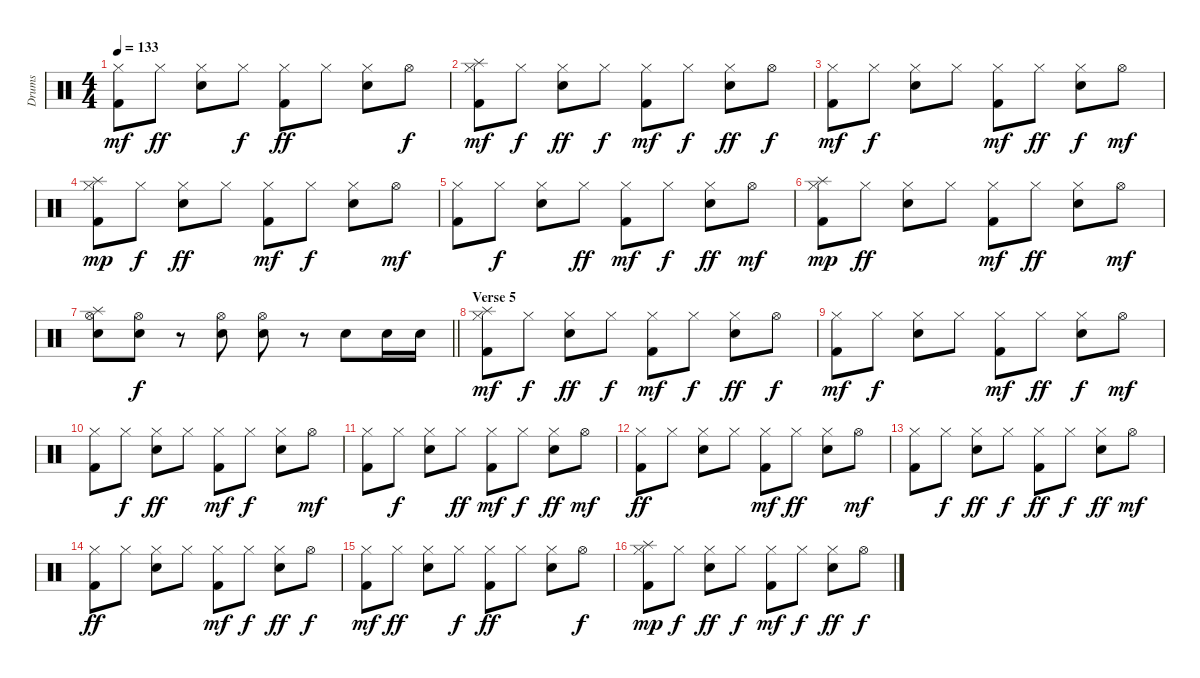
\track ("Drums   " "Drums   ") {instrument percussion}
\staff {score}
\articulation defaults
\ts (4 4)
\tempo 133
\clef neutral
\ks c
("Kick (hit) 2" "Hi-Hat (closed)").8{dy mf} "Hi-Hat (closed)".8{dy ff} ("Electric Snare (hit)" "Hi-Hat (closed)").8 "Hi-Hat (closed)".8{dy f} ("Kick (hit) 2" "Hi-Hat (closed)").8{dy ff} "Hi-Hat (closed)".8 ("Electric Snare (hit)" "Hi-Hat (closed)").8 "Hi-Hat (open)".8{dy f} |
("Kick (hit) 2" "Hi-Hat (closed)" "Splash (hit)").8{dy mf} "Hi-Hat (closed)".8{dy f} ("Electric Snare (hit)" "Hi-Hat (closed)").8{dy ff} "Hi-Hat (closed)".8{dy f} ("Kick (hit) 2" "Hi-Hat (closed)").8{dy mf} "Hi-Hat (closed)".8{dy f} ("Electric Snare (hit)" "Hi-Hat (closed)").8{dy ff} "Hi-Hat (open)".8{dy f} |
("Kick (hit) 2" "Hi-Hat (closed)").8{dy mf} "Hi-Hat (closed)".8{dy f} ("Electric Snare (hit)" "Hi-Hat (closed)").8 "Hi-Hat (closed)".8 ("Kick (hit) 2" "Hi-Hat (closed)").8{dy mf} "Hi-Hat (closed)".8{dy ff} ("Electric Snare (hit)" "Hi-Hat (closed)").8{dy f} "Hi-Hat (open)".8{dy mf} |
("Kick (hit) 2" "Hi-Hat (closed)" "Splash (hit)").8{dy mp} "Hi-Hat (closed)".8{dy f} ("Electric Snare (hit)" "Hi-Hat (closed)").8{dy ff} "Hi-Hat (closed)".8 ("Kick (hit) 2" "Hi-Hat (closed)").8{dy mf} "Hi-Hat (closed)".8{dy f} ("Electric Snare (hit)" "Hi-Hat (closed)").8 "Hi-Hat (open)".8{dy mf} |
("Kick (hit) 2" "Hi-Hat (closed)").8 "Hi-Hat (closed)".8{dy f} ("Electric Snare (hit)" "Hi-Hat (closed)").8 "Hi-Hat (closed)".8{dy ff} ("Kick (hit) 2" "Hi-Hat (closed)").8{dy mf} "Hi-Hat (closed)".8{dy f} ("Electric Snare (hit)" "Hi-Hat (closed)").8{dy ff} "Hi-Hat (open)".8{dy mf} |
("Kick (hit) 2" "Hi-Hat (closed)" "Splash (hit)").8{dy mp} "Hi-Hat (closed)".8{dy ff} ("Electric Snare (hit)" "Hi-Hat (closed)").8 "Hi-Hat (closed)".8 ("Kick (hit) 2" "Hi-Hat (closed)").8{dy mf} "Hi-Hat (closed)".8{dy ff} ("Electric Snare (hit)" "Hi-Hat (closed)").8 "Hi-Hat (open)".8{dy mf} |
\barLineRight lightlight
("Electric Snare (hit)" "Hi-Hat (open)" "Splash (hit)").8 ("Electric Snare (hit)" "Hi-Hat (open)").8{dy f} r.8 ("Electric Snare (hit)" "Hi-Hat (open)").8 ("Electric Snare (hit)" "Hi-Hat (open)").8 r.8 "Electric Snare (hit)".8 "Electric Snare (hit)".16 "Electric Snare (hit)".16 |
\section ("" "Verse 5")
("Kick (hit) 2" "Hi-Hat (closed)" "Splash (hit)").8{dy mf} "Hi-Hat (closed)".8{dy f} ("Electric Snare (hit)" "Hi-Hat (closed)").8{dy ff} "Hi-Hat (closed)".8{dy f} ("Kick (hit) 2" "Hi-Hat (closed)").8{dy mf} "Hi-Hat (closed)".8{dy f} ("Electric Snare (hit)" "Hi-Hat (closed)").8{dy ff} "Hi-Hat (open)".8{dy f} |
("Kick (hit) 2" "Hi-Hat (closed)").8{dy mf} "Hi-Hat (closed)".8{dy f} ("Electric Snare (hit)" "Hi-Hat (closed)").8 "Hi-Hat (closed)".8 ("Kick (hit) 2" "Hi-Hat (closed)").8{dy mf} "Hi-Hat (closed)".8{dy ff} ("Electric Snare (hit)" "Hi-Hat (closed)").8{dy f} "Hi-Hat (open)".8{dy mf} |
("Kick (hit) 2" "Hi-Hat (closed)").8 "Hi-Hat (closed)".8{dy f} ("Electric Snare (hit)" "Hi-Hat (closed)").8{dy ff} "Hi-Hat (closed)".8 ("Kick (hit) 2" "Hi-Hat (closed)").8{dy mf} "Hi-Hat (closed)".8{dy f} ("Electric Snare (hit)" "Hi-Hat (closed)").8 "Hi-Hat (open)".8{dy mf} |
("Kick (hit) 2" "Hi-Hat (closed)").8 "Hi-Hat (closed)".8{dy f} ("Electric Snare (hit)" "Hi-Hat (closed)").8 "Hi-Hat (closed)".8{dy ff} ("Kick (hit) 2" "Hi-Hat (closed)").8{dy mf} "Hi-Hat (closed)".8{dy f} ("Electric Snare (hit)" "Hi-Hat (closed)").8{dy ff} "Hi-Hat (open)".8{dy mf} |
("Kick (hit) 2" "Hi-Hat (closed)").8{dy ff} "Hi-Hat (closed)".8 ("Electric Snare (hit)" "Hi-Hat (closed)").8 "Hi-Hat (closed)".8 ("Kick (hit) 2" "Hi-Hat (closed)").8{dy mf} "Hi-Hat (closed)".8{dy ff} ("Electric Snare (hit)" "Hi-Hat (closed)").8 "Hi-Hat (open)".8{dy mf} |
("Kick (hit) 2" "Hi-Hat (closed)").8 "Hi-Hat (closed)".8{dy f} ("Electric Snare (hit)" "Hi-Hat (closed)").8{dy ff} "Hi-Hat (closed)".8{dy f} ("Kick (hit) 2" "Hi-Hat (closed)").8{dy ff} "Hi-Hat (closed)".8{dy f} ("Electric Snare (hit)" "Hi-Hat (closed)").8{dy ff} "Hi-Hat (open)".8{dy mf} |
("Kick (hit) 2" "Hi-Hat (closed)").8{dy ff} "Hi-Hat (closed)".8 ("Electric Snare (hit)" "Hi-Hat (closed)").8 "Hi-Hat (closed)".8 ("Kick (hit) 2" "Hi-Hat (closed)").8{dy mf} "Hi-Hat (closed)".8{dy f} ("Electric Snare (hit)" "Hi-Hat (closed)").8{dy ff} "Hi-Hat (open)".8{dy f} |
("Kick (hit) 2" "Hi-Hat (closed)").8{dy mf} "Hi-Hat (closed)".8{dy ff} ("Electric Snare (hit)" "Hi-Hat (closed)").8 "Hi-Hat (closed)".8{dy f} ("Kick (hit) 2" "Hi-Hat (closed)").8{dy ff} "Hi-Hat (closed)".8 ("Electric Snare (hit)" "Hi-Hat (closed)").8 "Hi-Hat (open)".8{dy f} |
("Kick (hit) 2" "Hi-Hat (closed)" "Splash (hit)").8{dy mp} "Hi-Hat (closed)".8{dy f} ("Electric Snare (hit)" "Hi-Hat (closed)").8{dy ff} "Hi-Hat (closed)".8{dy f} ("Kick (hit) 2" "Hi-Hat (closed)").8{dy mf} "Hi-Hat (closed)".8{dy f} ("Electric Snare (hit)" "Hi-Hat (closed)").8{dy ff} "Hi-Hat (open)".8{dy f}
